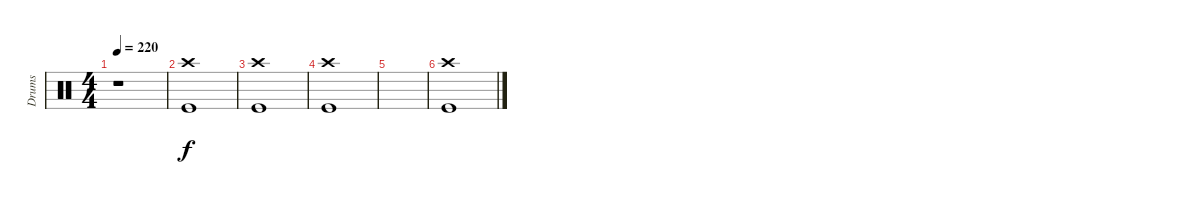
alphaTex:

\track ("Drums" "Drums") {instrument percussion}
\staff {score}
\articulation defaults
\ts (4 4)
\tempo 220
\clef neutral
\ks c
r.1{dy f} |
("Crash high (hit)" "Kick (hit)").1 |
("Crash high (hit)" "Kick (hit)").1 |
("Crash high (hit)" "Kick (hit)").1 |
|
("Crash high (hit)" "Kick (hit)").1
